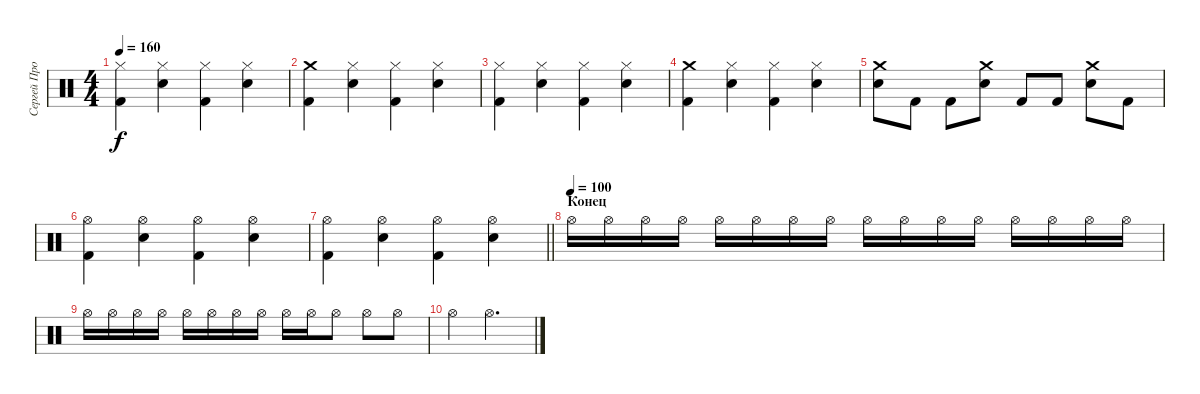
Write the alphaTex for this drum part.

\track ("Сергей Прокофьев" "Сергей Про") {instrument percussion}
\staff {score}
\articulation defaults
\ts (4 4)
\tempo 160
\clef neutral
\ks c
("Hi-Hat (closed)" "Kick (hit) 2").4{dy f} ("Hi-Hat (closed)" "Snare (hit) 2").4 ("Hi-Hat (closed)" "Kick (hit) 2").4 ("Hi-Hat (closed)" "Snare (hit) 2").4 |
("Crash medium (hit)" "Kick (hit) 2").4 ("Hi-Hat (closed)" "Snare (hit) 2").4 ("Hi-Hat (closed)" "Kick (hit) 2").4 ("Hi-Hat (closed)" "Snare (hit) 2").4 |
("Hi-Hat (closed)" "Kick (hit) 2").4 ("Hi-Hat (closed)" "Snare (hit) 2").4 ("Hi-Hat (closed)" "Kick (hit) 2").4 ("Hi-Hat (closed)" "Snare (hit) 2").4 |
("Crash medium (hit)" "Kick (hit) 2").4 ("Hi-Hat (closed)" "Snare (hit) 2").4 ("Hi-Hat (closed)" "Kick (hit) 2").4 ("Hi-Hat (closed)" "Snare (hit) 2").4 |
("Crash medium (hit)" "Snare (hit) 2").8 "Kick (hit) 2".8 "Kick (hit) 2".8 ("Crash medium (hit)" "Snare (hit) 2").8 "Kick (hit) 2".8 "Kick (hit) 2".8 ("Crash medium (hit)" "Snare (hit) 2").8 "Kick (hit) 2".8 |
("Hi-Hat (open)" "Kick (hit) 2").4 ("Hi-Hat (open)" "Snare (hit) 2").4 ("Hi-Hat (open)" "Kick (hit) 2").4 ("Hi-Hat (open)" "Snare (hit) 2").4 |
\barLineRight lightlight
("Hi-Hat (open)" "Kick (hit) 2").4 ("Hi-Hat (open)" "Snare (hit) 2").4 ("Hi-Hat (open)" "Kick (hit) 2").4 ("Hi-Hat (open)" "Snare (hit) 2").4 |
\section ("" "Конец")
\tempo (100)
"Hi-Hat (open)".16{volume 6} "Hi-Hat (open)".16 "Hi-Hat (open)".16 "Hi-Hat (open)".16 "Hi-Hat (open)".16 "Hi-Hat (open)".16 "Hi-Hat (open)".16 "Hi-Hat (open)".16 "Hi-Hat (open)".16 "Hi-Hat (open)".16 "Hi-Hat (open)".16 "Hi-Hat (open)".16 "Hi-Hat (open)".16 "Hi-Hat (open)".16 "Hi-Hat (open)".16 "Hi-Hat (open)".16 |
"Hi-Hat (open)".16 "Hi-Hat (open)".16 "Hi-Hat (open)".16 "Hi-Hat (open)".16 "Hi-Hat (open)".16 "Hi-Hat (open)".16 "Hi-Hat (open)".16 "Hi-Hat (open)".16 "Hi-Hat (open)".16 "Hi-Hat (open)".16 "Hi-Hat (open)".8 "Hi-Hat (open)".8 "Hi-Hat (open)".8 |
"Hi-Hat (open)".4 "Hi-Hat (open)".2{d}
